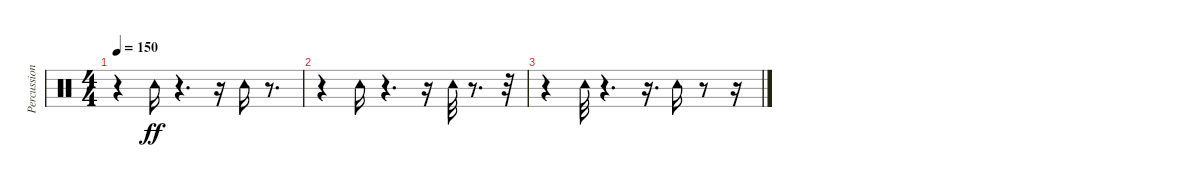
\track ("Percussion" "Percussion") {instrument percussion}
\staff {score}
\articulation defaults
\ts (4 4)
\tempo 150
\clef neutral
\ks c
r.4{dy ff} "Tambourine (hit)".16 r.4{d} r.16 "Tambourine (hit)".16 r.8{d} |
r.4 "Tambourine (hit)".16 r.4{d} r.16 "Tambourine (hit)".32 r.8{d} r.32 |
r.4 "Tambourine (hit)".32 r.4{d} r.16{d} "Tambourine (hit)".16 r.8 r.16
